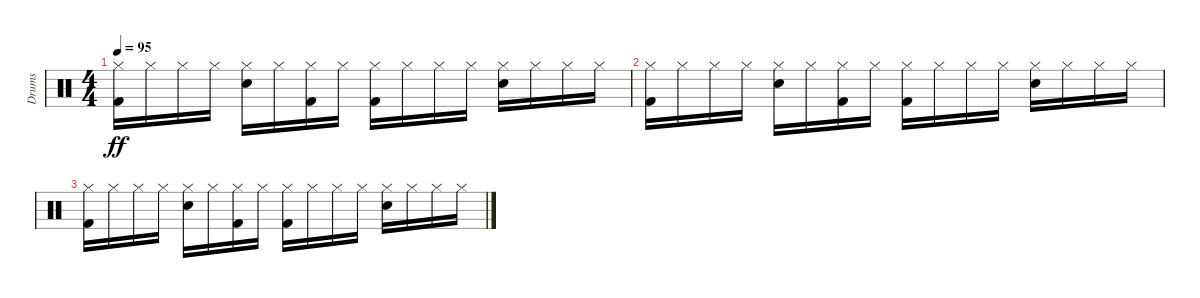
\track ("Drums" "Drums") {instrument percussion}
\staff {score}
\articulation defaults
\ts (4 4)
\tempo 95
\clef neutral
\ks c
("Kick (hit) 2" "Hi-Hat (closed)").16{dy ff} "Hi-Hat (closed)".16 "Hi-Hat (closed)".16 "Hi-Hat (closed)".16 ("Snare (hit) 2" "Hi-Hat (closed)").16 "Hi-Hat (closed)".16 ("Kick (hit) 2" "Hi-Hat (closed)").16 "Hi-Hat (closed)".16 ("Kick (hit) 2" "Hi-Hat (closed)").16 "Hi-Hat (closed)".16 "Hi-Hat (closed)".16 "Hi-Hat (closed)".16 ("Snare (hit) 2" "Hi-Hat (closed)").16 "Hi-Hat (closed)".16 "Hi-Hat (closed)".16 "Hi-Hat (closed)".16 |
("Kick (hit) 2" "Hi-Hat (closed)").16 "Hi-Hat (closed)".16 "Hi-Hat (closed)".16 "Hi-Hat (closed)".16 ("Snare (hit) 2" "Hi-Hat (closed)").16 "Hi-Hat (closed)".16 ("Kick (hit) 2" "Hi-Hat (closed)").16 "Hi-Hat (closed)".16 ("Kick (hit) 2" "Hi-Hat (closed)").16 "Hi-Hat (closed)".16 "Hi-Hat (closed)".16 "Hi-Hat (closed)".16 ("Snare (hit) 2" "Hi-Hat (closed)").16 "Hi-Hat (closed)".16 "Hi-Hat (closed)".16 "Hi-Hat (closed)".16 |
("Kick (hit) 2" "Hi-Hat (closed)").16 "Hi-Hat (closed)".16 "Hi-Hat (closed)".16 "Hi-Hat (closed)".16 ("Snare (hit) 2" "Hi-Hat (closed)").16 "Hi-Hat (closed)".16 ("Kick (hit) 2" "Hi-Hat (closed)").16 "Hi-Hat (closed)".16 ("Kick (hit) 2" "Hi-Hat (closed)").16 "Hi-Hat (closed)".16 "Hi-Hat (closed)".16 "Hi-Hat (closed)".16 ("Snare (hit) 2" "Hi-Hat (closed)").16 "Hi-Hat (closed)".16 "Hi-Hat (closed)".16 "Hi-Hat (closed)".16
